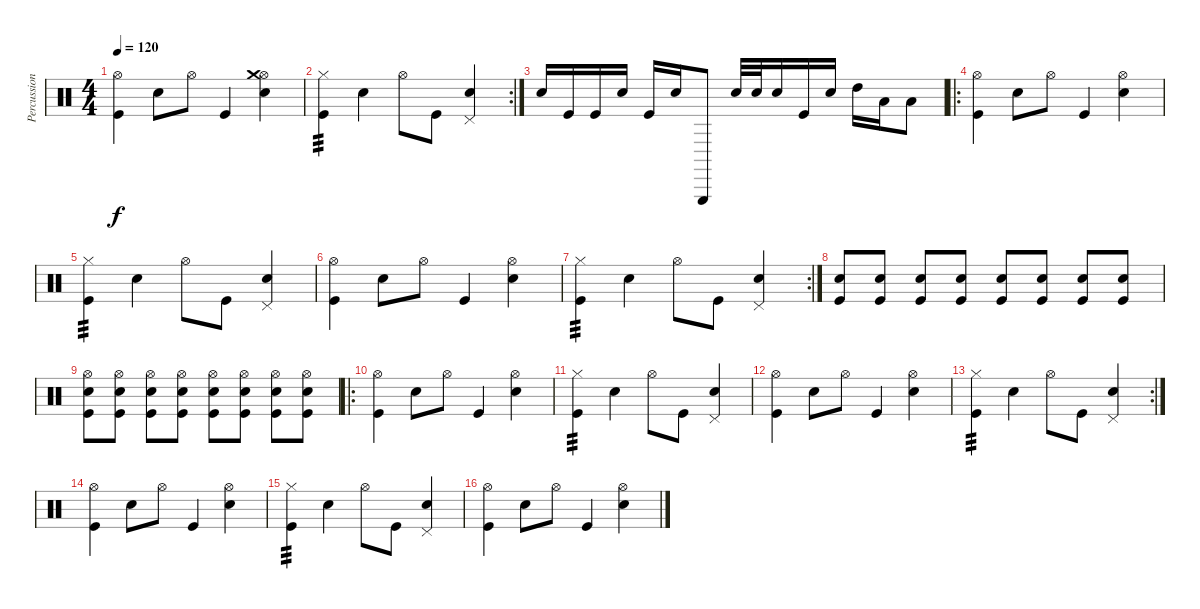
\track ("Percussion" "Percussion") {instrument percussion}
\staff {score}
\articulation defaults
\ts (4 4)
\tempo 120
\clef neutral
\ks c
("Hi-Hat (open)" "Kick (hit)").4{dy f} "Snare (hit) 2".8 "Hi-Hat (open)".8 "Kick (hit)".4 ("Hi-Hat (open)" "Crash medium (hit)" "Snare (hit) 2").4 |
\rc 2
("Hi-Hat (closed)" "Kick (hit)").4{tp 3} "Snare (hit) 2".4 "Hi-Hat (open)".8 "Kick (hit)".8 ("Pedal Hi-Hat (hit)" "Snare (hit) 2").4 |
"Snare (hit) 2".16 "Kick (hit)".16 "Kick (hit)".16 "Snare (hit) 2".16 "Kick (hit)".16 "Snare (hit) 2".16 "Triangle (hit)".8 "Snare (hit) 2".32 "Snare (hit) 2".32 "Snare (hit) 2".16 "Kick (hit)".16 "Snare (hit) 2".16 "High Tom (hit)".16 "Low Tom (hit)".16 "Low Floor Tom (hit)".8 |
\ro
("Hi-Hat (open)" "Kick (hit)").4 "Snare (hit) 2".8 "Hi-Hat (open)".8 "Kick (hit)".4 ("Hi-Hat (open)" "Snare (hit) 2").4 |
("Hi-Hat (closed)" "Kick (hit)").4{tp 3} "Snare (hit) 2".4 "Hi-Hat (open)".8 "Kick (hit)".8 ("Pedal Hi-Hat (hit)" "Snare (hit) 2").4 |
("Hi-Hat (open)" "Kick (hit)").4 "Snare (hit) 2".8 "Hi-Hat (open)".8 "Kick (hit)".4 ("Hi-Hat (open)" "Snare (hit) 2").4 |
\rc 2
("Hi-Hat (closed)" "Kick (hit)").4{tp 3} "Snare (hit) 2".4 "Hi-Hat (open)".8 "Kick (hit)".8 ("Pedal Hi-Hat (hit)" "Snare (hit) 2").4 |
("Snare (hit) 2" "Kick (hit)").8 ("Snare (hit) 2" "Kick (hit)").8 ("Snare (hit) 2" "Kick (hit)").8 ("Snare (hit) 2" "Kick (hit)").8 ("Snare (hit) 2" "Kick (hit)").8 ("Snare (hit) 2" "Kick (hit)").8 ("Snare (hit) 2" "Kick (hit)").8 ("Snare (hit) 2" "Kick (hit)").8 |
("Hi-Hat (open)" "Snare (hit) 2" "Kick (hit)").8 ("Hi-Hat (open)" "Snare (hit) 2" "Kick (hit)").8 ("Hi-Hat (open)" "Snare (hit) 2" "Kick (hit)").8 ("Hi-Hat (open)" "Snare (hit) 2" "Kick (hit)").8 ("Hi-Hat (open)" "Snare (hit) 2" "Kick (hit)").8 ("Hi-Hat (open)" "Snare (hit) 2" "Kick (hit)").8 ("Hi-Hat (open)" "Snare (hit) 2" "Kick (hit)").8 ("Hi-Hat (open)" "Snare (hit) 2" "Kick (hit)").8 |
\ro
("Hi-Hat (open)" "Kick (hit)").4 "Snare (hit) 2".8 "Hi-Hat (open)".8 "Kick (hit)".4 ("Hi-Hat (open)" "Snare (hit) 2").4 |
("Hi-Hat (closed)" "Kick (hit)").4{tp 3} "Snare (hit) 2".4 "Hi-Hat (open)".8 "Kick (hit)".8 ("Pedal Hi-Hat (hit)" "Snare (hit) 2").4 |
("Hi-Hat (open)" "Kick (hit)").4 "Snare (hit) 2".8 "Hi-Hat (open)".8 "Kick (hit)".4 ("Hi-Hat (open)" "Snare (hit) 2").4 |
\rc 2
("Hi-Hat (closed)" "Kick (hit)").4{tp 3} "Snare (hit) 2".4 "Hi-Hat (open)".8 "Kick (hit)".8 ("Pedal Hi-Hat (hit)" "Snare (hit) 2").4 |
("Hi-Hat (open)" "Kick (hit)").4 "Snare (hit) 2".8 "Hi-Hat (open)".8 "Kick (hit)".4 ("Hi-Hat (open)" "Snare (hit) 2").4 |
("Hi-Hat (closed)" "Kick (hit)").4{tp 3} "Snare (hit) 2".4 "Hi-Hat (open)".8 "Kick (hit)".8 ("Pedal Hi-Hat (hit)" "Snare (hit) 2").4 |
("Hi-Hat (open)" "Kick (hit)").4 "Snare (hit) 2".8 "Hi-Hat (open)".8 "Kick (hit)".4 ("Hi-Hat (open)" "Snare (hit) 2").4
